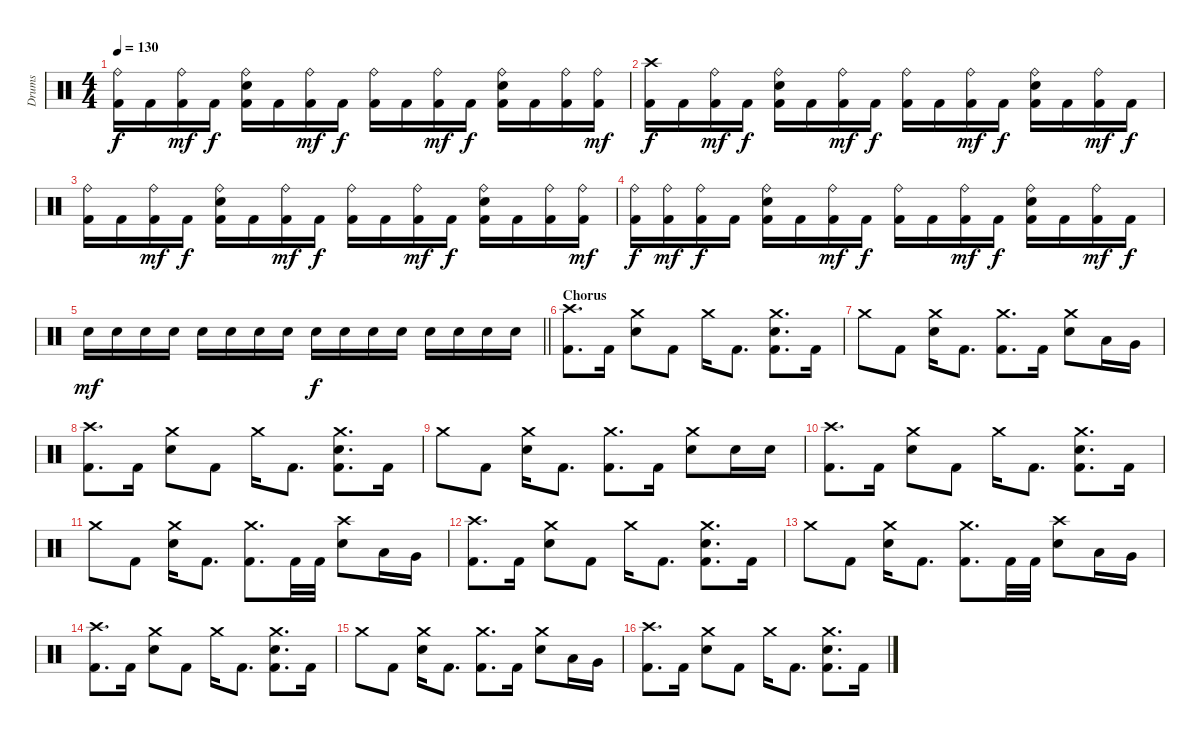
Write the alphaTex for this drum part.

\track ("Drums" "Drums") {instrument percussion}
\staff {score}
\articulation defaults
\ts (4 4)
\tempo 130
\clef neutral
\ks c
("Kick (hit) 2" "Ride (bell)").16{dy f} "Kick (hit) 2".16 ("Kick (hit) 2" "Ride (bell)").16{dy mf} "Kick (hit) 2".16{dy f} ("Kick (hit) 2" "Ride (bell)" "Electric Snare (hit)").16 "Kick (hit) 2".16 ("Kick (hit) 2" "Ride (bell)").16{dy mf} "Kick (hit) 2".16{dy f} ("Kick (hit) 2" "Ride (bell)").16 "Kick (hit) 2".16 ("Kick (hit) 2" "Ride (bell)").16{dy mf} "Kick (hit) 2".16{dy f} ("Kick (hit) 2" "Ride (bell)" "Electric Snare (hit)").16 "Kick (hit) 2".16 ("Kick (hit) 2" "Ride (bell)").16 ("Kick (hit) 2" "Ride (bell)").16{dy mf} |
("Kick (hit) 2" "Crash high (hit)").16{dy f} "Kick (hit) 2".16 ("Kick (hit) 2" "Ride (bell)").16{dy mf} "Kick (hit) 2".16{dy f} ("Kick (hit) 2" "Ride (bell)" "Electric Snare (hit)").16 "Kick (hit) 2".16 ("Kick (hit) 2" "Ride (bell)").16{dy mf} "Kick (hit) 2".16{dy f} ("Kick (hit) 2" "Ride (bell)").16 "Kick (hit) 2".16 ("Kick (hit) 2" "Ride (bell)").16{dy mf} "Kick (hit) 2".16{dy f} ("Kick (hit) 2" "Ride (bell)" "Electric Snare (hit)").16 "Kick (hit) 2".16 ("Kick (hit) 2" "Ride (bell)").16{dy mf} "Kick (hit) 2".16{dy f} |
("Kick (hit) 2" "Ride (bell)").16 "Kick (hit) 2".16 ("Kick (hit) 2" "Ride (bell)").16{dy mf} "Kick (hit) 2".16{dy f} ("Kick (hit) 2" "Ride (bell)" "Electric Snare (hit)").16 "Kick (hit) 2".16 ("Kick (hit) 2" "Ride (bell)").16{dy mf} "Kick (hit) 2".16{dy f} ("Kick (hit) 2" "Ride (bell)").16 "Kick (hit) 2".16 ("Kick (hit) 2" "Ride (bell)").16{dy mf} "Kick (hit) 2".16{dy f} ("Kick (hit) 2" "Ride (bell)" "Electric Snare (hit)").16 "Kick (hit) 2".16 ("Kick (hit) 2" "Ride (bell)").16 ("Kick (hit) 2" "Ride (bell)").16{dy mf} |
("Kick (hit) 2" "Ride (bell)").16{dy f} ("Kick (hit) 2" "Ride (bell)").16{dy mf} ("Kick (hit) 2" "Ride (bell)").16{dy f} "Kick (hit) 2".16 ("Kick (hit) 2" "Ride (bell)" "Electric Snare (hit)").16 "Kick (hit) 2".16 ("Kick (hit) 2" "Ride (bell)").16{dy mf} "Kick (hit) 2".16{dy f} ("Kick (hit) 2" "Ride (bell)").16 "Kick (hit) 2".16 ("Kick (hit) 2" "Ride (bell)").16{dy mf} "Kick (hit) 2".16{dy f} ("Kick (hit) 2" "Ride (bell)" "Electric Snare (hit)").16 "Kick (hit) 2".16 ("Kick (hit) 2" "Ride (bell)").16{dy mf} "Kick (hit) 2".16{dy f} |
\barLineRight lightlight "Electric Snare (hit)".16{dy mf} "Electric Snare (hit)".16 "Electric Snare (hit)".16 "Electric Snare (hit)".16 "Electric Snare (hit)".16 "Electric Snare (hit)".16 "Electric Snare (hit)".16 "Electric Snare (hit)".16 "Electric Snare (hit)".16{dy f} "Electric Snare (hit)".16 "Electric Snare (hit)".16 "Electric Snare (hit)".16 "Electric Snare (hit)".16 "Electric Snare (hit)".16 "Electric Snare (hit)".16 "Electric Snare (hit)".16
|
\section ("" "Chorus")
("Kick (hit) 2" "Crash high (hit)").8{d} "Kick (hit) 2".16 ("Crash medium (hit)" "Electric Snare (hit)").8 "Kick (hit) 2".8 "Crash medium (hit)".16 "Kick (hit) 2".8{d} ("Kick (hit) 2" "Crash medium (hit)" "Electric Snare (hit)").8{d} "Kick (hit) 2".16 |
"Crash medium (hit)".8 "Kick (hit) 2".8 ("Crash medium (hit)" "Electric Snare (hit)").16 "Kick (hit) 2".8{d} ("Kick (hit) 2" "Crash medium (hit)").8{d} "Kick (hit) 2".16 ("Crash medium (hit)" "Electric Snare (hit)").8 "Low Tom (hit)".16 "Very Low Tom (hit)".16 |
("Kick (hit) 2" "Crash high (hit)").8{d} "Kick (hit) 2".16 ("Crash medium (hit)" "Electric Snare (hit)").8 "Kick (hit) 2".8 "Crash medium (hit)".16 "Kick (hit) 2".8{d} ("Kick (hit) 2" "Crash medium (hit)" "Electric Snare (hit)").8{d} "Kick (hit) 2".16 |
"Crash medium (hit)".8 "Kick (hit) 2".8 ("Crash medium (hit)" "Electric Snare (hit)").16 "Kick (hit) 2".8{d} ("Kick (hit) 2" "Crash medium (hit)").8{d} "Kick (hit) 2".16 ("Crash medium (hit)" "Electric Snare (hit)").8 "Electric Snare (hit)".16 "Electric Snare (hit)".16 |
("Kick (hit) 2" "Crash high (hit)").8{d} "Kick (hit) 2".16 ("Crash medium (hit)" "Electric Snare (hit)").8 "Kick (hit) 2".8 "Crash medium (hit)".16 "Kick (hit) 2".8{d} ("Kick (hit) 2" "Crash medium (hit)" "Electric Snare (hit)").8{d} "Kick (hit) 2".16 |
"Crash medium (hit)".8 "Kick (hit) 2".8 ("Crash medium (hit)" "Electric Snare (hit)").16 "Kick (hit) 2".8{d} ("Kick (hit) 2" "Crash medium (hit)").8{d} "Kick (hit) 2".32 "Kick (hit) 2".32 ("Crash high (hit)" "Electric Snare (hit)").8 "Low Tom (hit)".16 "Very Low Tom (hit)".16 |
("Kick (hit) 2" "Crash high (hit)").8{d} "Kick (hit) 2".16 ("Crash medium (hit)" "Electric Snare (hit)").8 "Kick (hit) 2".8 "Crash medium (hit)".16 "Kick (hit) 2".8{d} ("Kick (hit) 2" "Crash medium (hit)" "Electric Snare (hit)").8{d} "Kick (hit) 2".16 |
"Crash medium (hit)".8 "Kick (hit) 2".8 ("Crash medium (hit)" "Electric Snare (hit)").16 "Kick (hit) 2".8{d} ("Kick (hit) 2" "Crash medium (hit)").8{d} "Kick (hit) 2".32 "Kick (hit) 2".32 ("Crash high (hit)" "Electric Snare (hit)").8 "Low Tom (hit)".16 "Very Low Tom (hit)".16 |
("Kick (hit) 2" "Crash high (hit)").8{d} "Kick (hit) 2".16 ("Crash medium (hit)" "Electric Snare (hit)").8 "Kick (hit) 2".8 "Crash medium (hit)".16 "Kick (hit) 2".8{d} ("Kick (hit) 2" "Crash medium (hit)" "Electric Snare (hit)").8{d} "Kick (hit) 2".16 |
"Crash medium (hit)".8 "Kick (hit) 2".8 ("Crash medium (hit)" "Electric Snare (hit)").16 "Kick (hit) 2".8{d} ("Kick (hit) 2" "Crash medium (hit)").8{d} "Kick (hit) 2".16 ("Crash medium (hit)" "Electric Snare (hit)").8 "Low Tom (hit)".16 "Very Low Tom (hit)".16 |
("Kick (hit) 2" "Crash high (hit)").8{d} "Kick (hit) 2".16 ("Crash medium (hit)" "Electric Snare (hit)").8 "Kick (hit) 2".8 "Crash medium (hit)".16 "Kick (hit) 2".8{d} ("Kick (hit) 2" "Crash medium (hit)" "Electric Snare (hit)").8{d} "Kick (hit) 2".16
